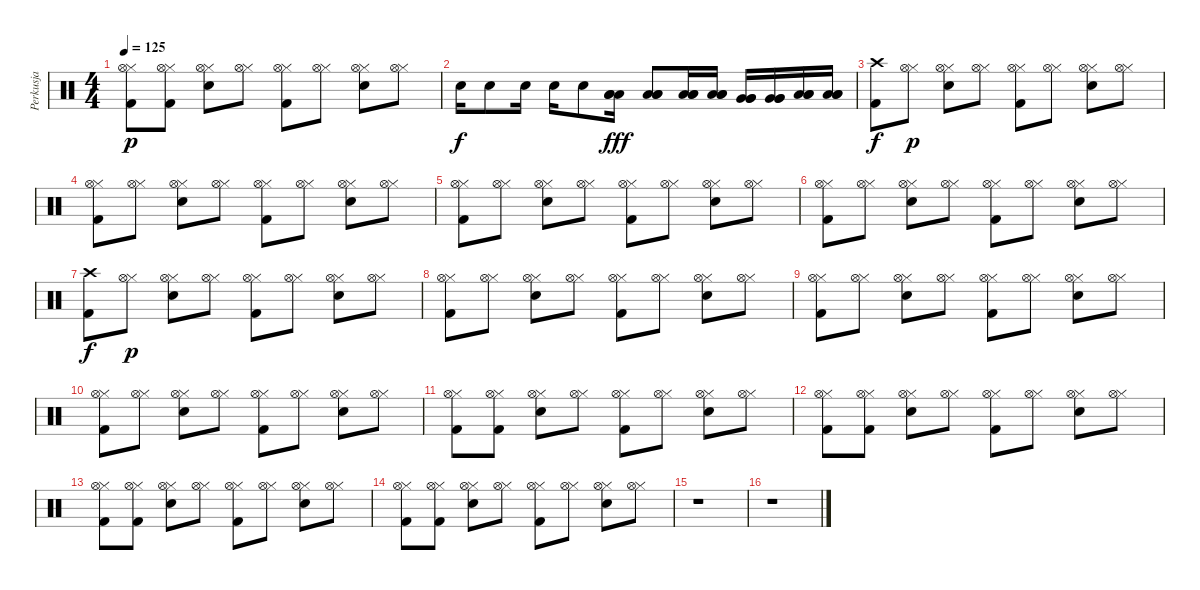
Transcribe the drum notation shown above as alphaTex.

\track ("Perkusja" "Perkusja") {instrument percussion}
\staff {score}
\articulation defaults
\ts (4 4)
\tempo 125
\clef neutral
\ks c
("Kick (hit) 2" "Hi-Hat (closed)" "Hi-Hat (open)").8{dy p} ("Kick (hit) 2" "Hi-Hat (closed)" "Hi-Hat (open)").8 ("Electric Snare (hit)" "Hi-Hat (closed)" "Hi-Hat (open)").8 ("Hi-Hat (closed)" "Hi-Hat (open)").8 ("Kick (hit) 2" "Hi-Hat (closed)" "Hi-Hat (open)").8 ("Hi-Hat (closed)" "Hi-Hat (open)").8 ("Electric Snare (hit)" "Hi-Hat (closed)" "Hi-Hat (open)").8 ("Hi-Hat (closed)" "Hi-Hat (open)").8 |
"Electric Snare (hit)".16{dy f} "Electric Snare (hit)".8 "Electric Snare (hit)".16 "Electric Snare (hit)".16 "Electric Snare (hit)".8 ("Low Tom (hit)" "Low Tom (hit)" "Low Tom (hit)").16{dy fff} ("Low Tom (hit)" "Low Tom (hit)" "Low Tom (hit)").8 ("Low Tom (hit)" "Low Tom (hit)" "Low Tom (hit)").16 ("Low Tom (hit)" "Low Tom (hit)" "Low Tom (hit)").16 ("Very Low Tom (hit)" "Very Low Tom (hit)" "Very Low Tom (hit)").16 ("Very Low Tom (hit)" "Very Low Tom (hit)" "Very Low Tom (hit)").16 ("Low Floor Tom (hit)" "Low Floor Tom (hit)" "Low Floor Tom (hit)").16 ("Low Floor Tom (hit)" "Low Floor Tom (hit)" "Low Floor Tom (hit)").16 |
("Kick (hit) 2" "Crash high (hit)").8{dy f} ("Hi-Hat (closed)" "Hi-Hat (open)").8{dy p} ("Electric Snare (hit)" "Hi-Hat (closed)" "Hi-Hat (open)").8 ("Hi-Hat (closed)" "Hi-Hat (open)").8 ("Kick (hit) 2" "Hi-Hat (closed)" "Hi-Hat (open)").8 ("Hi-Hat (closed)" "Hi-Hat (open)").8 ("Electric Snare (hit)" "Hi-Hat (closed)" "Hi-Hat (open)").8 ("Hi-Hat (closed)" "Hi-Hat (open)").8 |
("Kick (hit) 2" "Hi-Hat (closed)" "Hi-Hat (open)").8 ("Hi-Hat (closed)" "Hi-Hat (open)").8 ("Electric Snare (hit)" "Hi-Hat (closed)" "Hi-Hat (open)").8 ("Hi-Hat (closed)" "Hi-Hat (open)").8 ("Kick (hit) 2" "Hi-Hat (closed)" "Hi-Hat (open)").8 ("Hi-Hat (closed)" "Hi-Hat (open)").8 ("Electric Snare (hit)" "Hi-Hat (closed)" "Hi-Hat (open)").8 ("Hi-Hat (closed)" "Hi-Hat (open)").8 |
("Kick (hit) 2" "Hi-Hat (closed)" "Hi-Hat (open)").8 ("Hi-Hat (closed)" "Hi-Hat (open)").8 ("Electric Snare (hit)" "Hi-Hat (closed)" "Hi-Hat (open)").8 ("Hi-Hat (closed)" "Hi-Hat (open)").8 ("Kick (hit) 2" "Hi-Hat (closed)" "Hi-Hat (open)").8 ("Hi-Hat (closed)" "Hi-Hat (open)").8 ("Electric Snare (hit)" "Hi-Hat (closed)" "Hi-Hat (open)").8 ("Hi-Hat (closed)" "Hi-Hat (open)").8 |
("Kick (hit) 2" "Hi-Hat (closed)" "Hi-Hat (open)").8 ("Hi-Hat (closed)" "Hi-Hat (open)").8 ("Electric Snare (hit)" "Hi-Hat (closed)" "Hi-Hat (open)").8 ("Hi-Hat (closed)" "Hi-Hat (open)").8 ("Kick (hit) 2" "Hi-Hat (closed)" "Hi-Hat (open)").8 ("Hi-Hat (closed)" "Hi-Hat (open)").8 ("Electric Snare (hit)" "Hi-Hat (closed)" "Hi-Hat (open)").8 ("Hi-Hat (closed)" "Hi-Hat (open)").8 |
("Kick (hit) 2" "Crash high (hit)").8{dy f} ("Hi-Hat (closed)" "Hi-Hat (open)").8{dy p} ("Electric Snare (hit)" "Hi-Hat (closed)" "Hi-Hat (open)").8 ("Hi-Hat (closed)" "Hi-Hat (open)").8 ("Kick (hit) 2" "Hi-Hat (closed)" "Hi-Hat (open)").8 ("Hi-Hat (closed)" "Hi-Hat (open)").8 ("Electric Snare (hit)" "Hi-Hat (closed)" "Hi-Hat (open)").8 ("Hi-Hat (closed)" "Hi-Hat (open)").8 |
("Kick (hit) 2" "Hi-Hat (closed)" "Hi-Hat (open)").8 ("Hi-Hat (closed)" "Hi-Hat (open)").8 ("Electric Snare (hit)" "Hi-Hat (closed)" "Hi-Hat (open)").8 ("Hi-Hat (closed)" "Hi-Hat (open)").8 ("Kick (hit) 2" "Hi-Hat (closed)" "Hi-Hat (open)").8 ("Hi-Hat (closed)" "Hi-Hat (open)").8 ("Electric Snare (hit)" "Hi-Hat (closed)" "Hi-Hat (open)").8 ("Hi-Hat (closed)" "Hi-Hat (open)").8 |
("Kick (hit) 2" "Hi-Hat (closed)" "Hi-Hat (open)").8 ("Hi-Hat (closed)" "Hi-Hat (open)").8 ("Electric Snare (hit)" "Hi-Hat (closed)" "Hi-Hat (open)").8 ("Hi-Hat (closed)" "Hi-Hat (open)").8 ("Kick (hit) 2" "Hi-Hat (closed)" "Hi-Hat (open)").8 ("Hi-Hat (closed)" "Hi-Hat (open)").8 ("Electric Snare (hit)" "Hi-Hat (closed)" "Hi-Hat (open)").8 ("Hi-Hat (closed)" "Hi-Hat (open)").8 |
("Kick (hit) 2" "Hi-Hat (closed)" "Hi-Hat (open)").8 ("Hi-Hat (closed)" "Hi-Hat (open)").8 ("Electric Snare (hit)" "Hi-Hat (closed)" "Hi-Hat (open)").8 ("Hi-Hat (closed)" "Hi-Hat (open)").8 ("Kick (hit) 2" "Hi-Hat (closed)" "Hi-Hat (open)").8 ("Hi-Hat (closed)" "Hi-Hat (open)").8 ("Electric Snare (hit)" "Hi-Hat (closed)" "Hi-Hat (open)").8 ("Hi-Hat (closed)" "Hi-Hat (open)").8 |
("Kick (hit) 2" "Hi-Hat (closed)" "Hi-Hat (open)").8 ("Kick (hit) 2" "Hi-Hat (closed)" "Hi-Hat (open)").8 ("Electric Snare (hit)" "Hi-Hat (closed)" "Hi-Hat (open)").8 ("Hi-Hat (closed)" "Hi-Hat (open)").8 ("Kick (hit) 2" "Hi-Hat (closed)" "Hi-Hat (open)").8 ("Hi-Hat (closed)" "Hi-Hat (open)").8 ("Electric Snare (hit)" "Hi-Hat (closed)" "Hi-Hat (open)").8 ("Hi-Hat (closed)" "Hi-Hat (open)").8 |
("Kick (hit) 2" "Hi-Hat (closed)" "Hi-Hat (open)").8 ("Kick (hit) 2" "Hi-Hat (closed)" "Hi-Hat (open)").8 ("Electric Snare (hit)" "Hi-Hat (closed)" "Hi-Hat (open)").8 ("Hi-Hat (closed)" "Hi-Hat (open)").8 ("Kick (hit) 2" "Hi-Hat (closed)" "Hi-Hat (open)").8 ("Hi-Hat (closed)" "Hi-Hat (open)").8 ("Electric Snare (hit)" "Hi-Hat (closed)" "Hi-Hat (open)").8 ("Hi-Hat (closed)" "Hi-Hat (open)").8 |
("Kick (hit) 2" "Hi-Hat (closed)" "Hi-Hat (open)").8 ("Kick (hit) 2" "Hi-Hat (closed)" "Hi-Hat (open)").8 ("Electric Snare (hit)" "Hi-Hat (closed)" "Hi-Hat (open)").8 ("Hi-Hat (closed)" "Hi-Hat (open)").8 ("Kick (hit) 2" "Hi-Hat (closed)" "Hi-Hat (open)").8 ("Hi-Hat (closed)" "Hi-Hat (open)").8 ("Electric Snare (hit)" "Hi-Hat (closed)" "Hi-Hat (open)").8 ("Hi-Hat (closed)" "Hi-Hat (open)").8 |
("Kick (hit) 2" "Hi-Hat (closed)" "Hi-Hat (open)").8 ("Kick (hit) 2" "Hi-Hat (closed)" "Hi-Hat (open)").8 ("Electric Snare (hit)" "Hi-Hat (closed)" "Hi-Hat (open)").8 ("Hi-Hat (closed)" "Hi-Hat (open)").8 ("Kick (hit) 2" "Hi-Hat (closed)" "Hi-Hat (open)").8 ("Hi-Hat (closed)" "Hi-Hat (open)").8 ("Electric Snare (hit)" "Hi-Hat (closed)" "Hi-Hat (open)").8 ("Hi-Hat (closed)" "Hi-Hat (open)").8 |
r.1 |
r.1
